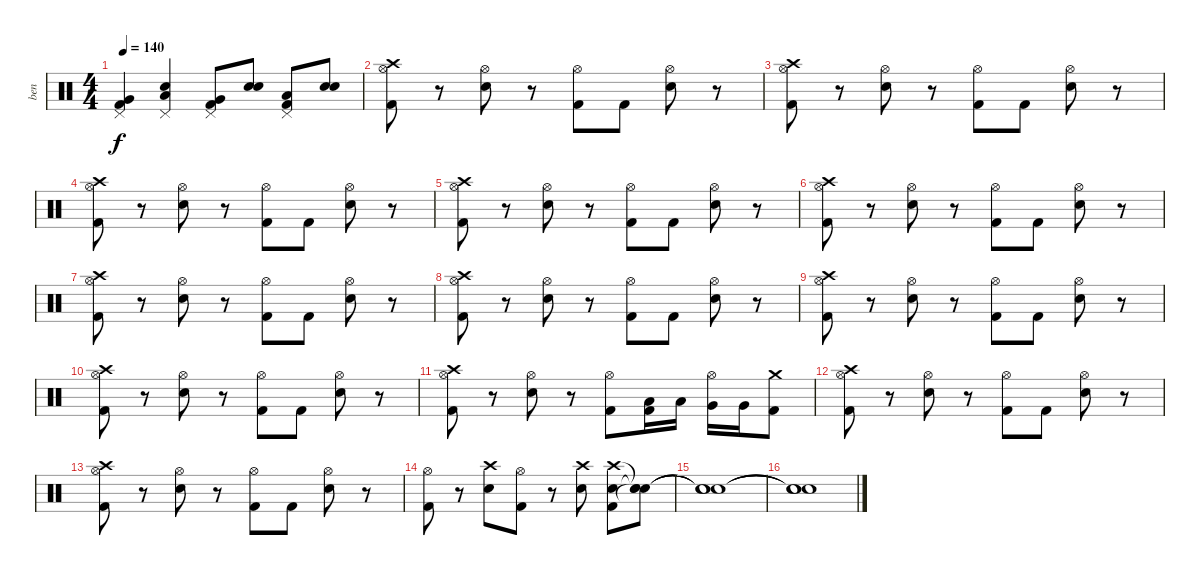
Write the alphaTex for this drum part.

\track ("ben" "ben") {instrument percussion}
\staff {score}
\articulation defaults
\ts (4 4)
\tempo 140
\clef neutral
\ks c
("Kick (hit) 2" "Very Low Tom (hit)" "Pedal Hi-Hat (hit)").4{dy f} ("Electric Snare (hit)" "Low Tom (hit)" "Pedal Hi-Hat (hit)").4 ("Kick (hit) 2" "Very Low Tom (hit)" "Pedal Hi-Hat (hit)").8 ("Electric Snare (hit)" "Electric Snare (hit)").8 ("Kick (hit) 2" "Low Tom (hit)" "Pedal Hi-Hat (hit)").8 ("Electric Snare (hit)" "Electric Snare (hit)").8 |
("Hi-Hat (open)" "Kick (hit) 2" "Crash high (hit)").8 r.8 ("Hi-Hat (open)" "Electric Snare (hit)").8 r.8 ("Hi-Hat (open)" "Kick (hit) 2").8 "Kick (hit) 2".8 ("Hi-Hat (open)" "Electric Snare (hit)").8 r.8 |
("Hi-Hat (open)" "Kick (hit) 2" "Crash high (hit)").8 r.8 ("Hi-Hat (open)" "Electric Snare (hit)").8 r.8 ("Hi-Hat (open)" "Kick (hit) 2").8 "Kick (hit) 2".8 ("Hi-Hat (open)" "Electric Snare (hit)").8 r.8 |
("Hi-Hat (open)" "Kick (hit) 2" "Crash high (hit)").8 r.8 ("Hi-Hat (open)" "Electric Snare (hit)").8 r.8 ("Hi-Hat (open)" "Kick (hit) 2").8 "Kick (hit) 2".8 ("Hi-Hat (open)" "Electric Snare (hit)").8 r.8 |
("Hi-Hat (open)" "Kick (hit) 2" "Crash high (hit)").8 r.8 ("Hi-Hat (open)" "Electric Snare (hit)").8 r.8 ("Hi-Hat (open)" "Kick (hit) 2").8 "Kick (hit) 2".8 ("Hi-Hat (open)" "Electric Snare (hit)").8 r.8 |
("Hi-Hat (open)" "Kick (hit) 2" "Crash high (hit)").8 r.8 ("Hi-Hat (open)" "Electric Snare (hit)").8 r.8 ("Hi-Hat (open)" "Kick (hit) 2").8 "Kick (hit) 2".8 ("Hi-Hat (open)" "Electric Snare (hit)").8 r.8 |
("Hi-Hat (open)" "Kick (hit) 2" "Crash high (hit)").8 r.8 ("Hi-Hat (open)" "Electric Snare (hit)").8 r.8 ("Hi-Hat (open)" "Kick (hit) 2").8 "Kick (hit) 2".8 ("Hi-Hat (open)" "Electric Snare (hit)").8 r.8 |
("Hi-Hat (open)" "Kick (hit) 2" "Crash high (hit)").8 r.8 ("Hi-Hat (open)" "Electric Snare (hit)").8 r.8 ("Hi-Hat (open)" "Kick (hit) 2").8 "Kick (hit) 2".8 ("Hi-Hat (open)" "Electric Snare (hit)").8 r.8 |
("Hi-Hat (open)" "Kick (hit) 2" "Crash high (hit)").8 r.8 ("Hi-Hat (open)" "Electric Snare (hit)").8 r.8 ("Hi-Hat (open)" "Kick (hit) 2").8 "Kick (hit) 2".8 ("Hi-Hat (open)" "Electric Snare (hit)").8 r.8 |
("Hi-Hat (open)" "Kick (hit) 2" "Crash high (hit)").8 r.8 ("Hi-Hat (open)" "Electric Snare (hit)").8 r.8 ("Hi-Hat (open)" "Kick (hit) 2").8 "Kick (hit) 2".8 ("Hi-Hat (open)" "Electric Snare (hit)").8 r.8 |
("Hi-Hat (open)" "Kick (hit) 2" "Crash high (hit)").8 r.8 ("Hi-Hat (open)" "Electric Snare (hit)").8 r.8 ("Hi-Hat (open)" "Kick (hit) 2").8 ("Kick (hit) 2" "Low Tom (hit)").16 "Low Tom (hit)".16 ("Hi-Hat (open)" "Very Low Tom (hit)").16 "Very Low Tom (hit)".16 ("Kick (hit) 2" "Crash medium (hit)").8 |
("Hi-Hat (open)" "Kick (hit) 2" "Crash high (hit)").8 r.8 ("Hi-Hat (open)" "Electric Snare (hit)").8 r.8 ("Hi-Hat (open)" "Kick (hit) 2").8 "Kick (hit) 2".8 ("Hi-Hat (open)" "Electric Snare (hit)").8 r.8 |
("Hi-Hat (open)" "Kick (hit) 2" "Crash high (hit)").8 r.8 ("Hi-Hat (open)" "Electric Snare (hit)").8 r.8 ("Hi-Hat (open)" "Kick (hit) 2").8 "Kick (hit) 2".8 ("Hi-Hat (open)" "Electric Snare (hit)").8 r.8 |
("Hi-Hat (open)" "Kick (hit) 2").8 r.8 ("Crash high (hit)" "Electric Snare (hit)").8 ("Hi-Hat (open)" "Kick (hit) 2").8 r.8 ("Crash high (hit)" "Electric Snare (hit)").8 ("Crash high (hit)" "Kick (hit) 2" "Electric Snare (hit)").8 ("Snare (hit)"{t} "Snare (hit)"{t} "Snare (hit)"{t}).8 |
("Snare (hit)"{t} "Snare (hit)"{t} "Snare (hit)"{t}).1 |
("Snare (hit)"{t} "Snare (hit)"{t} "Snare (hit)"{t}).1
